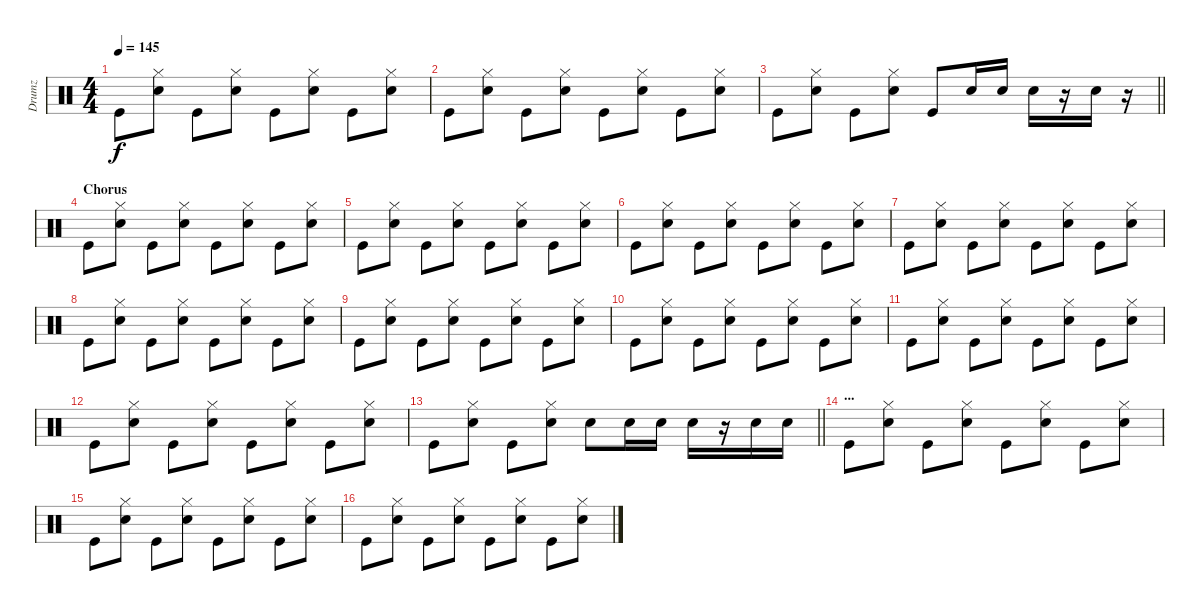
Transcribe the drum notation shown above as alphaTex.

\track ("Drumz" "Drumz") {instrument percussion}
\staff {score}
\articulation defaults
\ts (4 4)
\tempo 145
\clef neutral
\ks c "Kick (hit)".8{dy f}
("Hi-Hat (closed)" "Snare (hit) 2").8 "Kick (hit)".8 ("Hi-Hat (closed)" "Snare (hit) 2").8 "Kick (hit)".8 ("Hi-Hat (closed)" "Snare (hit) 2").8 "Kick (hit)".8 ("Hi-Hat (closed)" "Snare (hit) 2").8 |
"Kick (hit)".8 ("Hi-Hat (closed)" "Snare (hit) 2").8 "Kick (hit)".8 ("Hi-Hat (closed)" "Snare (hit) 2").8 "Kick (hit)".8 ("Hi-Hat (closed)" "Snare (hit) 2").8 "Kick (hit)".8 ("Hi-Hat (closed)" "Snare (hit) 2").8 |
\barLineRight lightlight "Kick (hit)".8
("Hi-Hat (closed)" "Snare (hit) 2").8 "Kick (hit)".8 ("Hi-Hat (closed)" "Snare (hit) 2").8 "Kick (hit)".8 "Snare (hit) 2".16 "Snare (hit) 2".16 "Snare (hit) 2".16 r.16 "Snare (hit) 2".16 r.16 |
\section ("" "Chorus")
"Kick (hit)".8 ("Hi-Hat (closed)" "Snare (hit) 2").8 "Kick (hit)".8 ("Hi-Hat (closed)" "Snare (hit) 2").8 "Kick (hit)".8 ("Hi-Hat (closed)" "Snare (hit) 2").8 "Kick (hit)".8 ("Hi-Hat (closed)" "Snare (hit) 2").8 |
"Kick (hit)".8 ("Hi-Hat (closed)" "Snare (hit) 2").8 "Kick (hit)".8 ("Hi-Hat (closed)" "Snare (hit) 2").8 "Kick (hit)".8 ("Hi-Hat (closed)" "Snare (hit) 2").8 "Kick (hit)".8 ("Hi-Hat (closed)" "Snare (hit) 2").8 |
"Kick (hit)".8 ("Hi-Hat (closed)" "Snare (hit) 2").8 "Kick (hit)".8 ("Hi-Hat (closed)" "Snare (hit) 2").8 "Kick (hit)".8 ("Hi-Hat (closed)" "Snare (hit) 2").8 "Kick (hit)".8 ("Hi-Hat (closed)" "Snare (hit) 2").8 |
"Kick (hit)".8 ("Hi-Hat (closed)" "Snare (hit) 2").8 "Kick (hit)".8 ("Hi-Hat (closed)" "Snare (hit) 2").8 "Kick (hit)".8 ("Hi-Hat (closed)" "Snare (hit) 2").8 "Kick (hit)".8 ("Hi-Hat (closed)" "Snare (hit) 2").8 |
"Kick (hit)".8 ("Hi-Hat (closed)" "Snare (hit) 2").8 "Kick (hit)".8 ("Hi-Hat (closed)" "Snare (hit) 2").8 "Kick (hit)".8 ("Hi-Hat (closed)" "Snare (hit) 2").8 "Kick (hit)".8 ("Hi-Hat (closed)" "Snare (hit) 2").8 |
"Kick (hit)".8 ("Hi-Hat (closed)" "Snare (hit) 2").8 "Kick (hit)".8 ("Hi-Hat (closed)" "Snare (hit) 2").8 "Kick (hit)".8 ("Hi-Hat (closed)" "Snare (hit) 2").8 "Kick (hit)".8 ("Hi-Hat (closed)" "Snare (hit) 2").8 |
"Kick (hit)".8 ("Hi-Hat (closed)" "Snare (hit) 2").8 "Kick (hit)".8 ("Hi-Hat (closed)" "Snare (hit) 2").8 "Kick (hit)".8 ("Hi-Hat (closed)" "Snare (hit) 2").8 "Kick (hit)".8 ("Hi-Hat (closed)" "Snare (hit) 2").8 |
"Kick (hit)".8 ("Hi-Hat (closed)" "Snare (hit) 2").8 "Kick (hit)".8 ("Hi-Hat (closed)" "Snare (hit) 2").8 "Kick (hit)".8 ("Hi-Hat (closed)" "Snare (hit) 2").8 "Kick (hit)".8 ("Hi-Hat (closed)" "Snare (hit) 2").8 |
"Kick (hit)".8 ("Hi-Hat (closed)" "Snare (hit) 2").8 "Kick (hit)".8 ("Hi-Hat (closed)" "Snare (hit) 2").8 "Kick (hit)".8 ("Hi-Hat (closed)" "Snare (hit) 2").8 "Kick (hit)".8 ("Hi-Hat (closed)" "Snare (hit) 2").8 |
\barLineRight lightlight "Kick (hit)".8
("Hi-Hat (closed)" "Snare (hit) 2").8 "Kick (hit)".8 ("Hi-Hat (closed)" "Snare (hit) 2").8 "Snare (hit) 2".8 "Snare (hit) 2".16 "Snare (hit) 2".16 "Snare (hit) 2".16 r.16 "Snare (hit) 2".16 "Snare (hit) 2".16 |
\section ("" "...")
"Kick (hit)".8 ("Hi-Hat (closed)" "Snare (hit) 2").8 "Kick (hit)".8 ("Hi-Hat (closed)" "Snare (hit) 2").8 "Kick (hit)".8 ("Hi-Hat (closed)" "Snare (hit) 2").8 "Kick (hit)".8 ("Hi-Hat (closed)" "Snare (hit) 2").8 |
"Kick (hit)".8 ("Hi-Hat (closed)" "Snare (hit) 2").8 "Kick (hit)".8 ("Hi-Hat (closed)" "Snare (hit) 2").8 "Kick (hit)".8 ("Hi-Hat (closed)" "Snare (hit) 2").8 "Kick (hit)".8 ("Hi-Hat (closed)" "Snare (hit) 2").8 |
"Kick (hit)".8 ("Hi-Hat (closed)" "Snare (hit) 2").8 "Kick (hit)".8 ("Hi-Hat (closed)" "Snare (hit) 2").8 "Kick (hit)".8 ("Hi-Hat (closed)" "Snare (hit) 2").8 "Kick (hit)".8 ("Hi-Hat (closed)" "Snare (hit) 2").8
